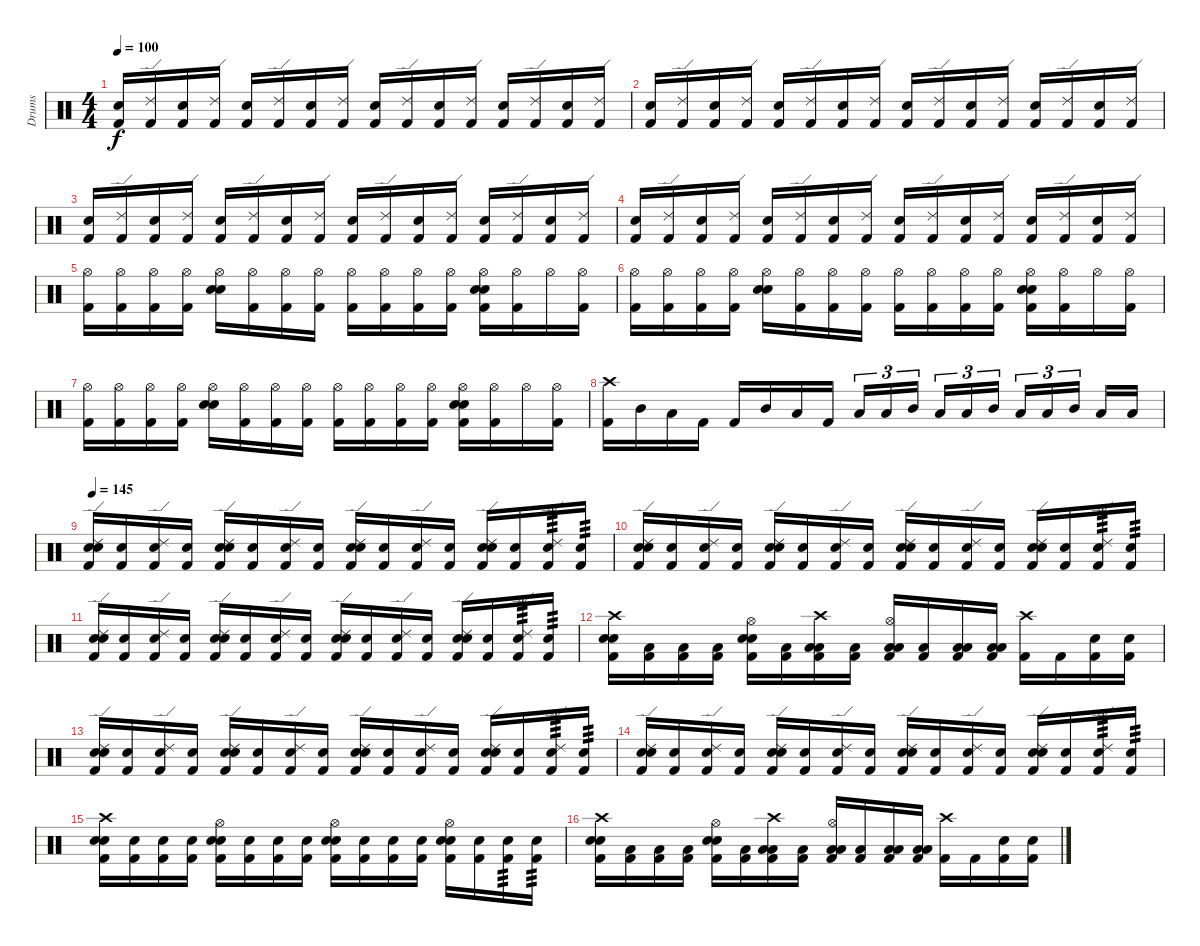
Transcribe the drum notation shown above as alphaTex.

\track ("Drums" "Drums") {instrument percussion}
\staff {score}
\articulation defaults
\ts (4 4)
\tempo 100
\clef neutral
\ks c
("Electric Snare (hit)" "Kick (hit) 2").16{dy f} ("Ride (edge) 2" "Kick (hit) 2").16 ("Electric Snare (hit)" "Kick (hit) 2").16 ("Ride (edge) 2" "Kick (hit) 2").16 ("Electric Snare (hit)" "Kick (hit) 2").16 ("Ride (edge) 2" "Kick (hit) 2").16 ("Electric Snare (hit)" "Kick (hit) 2").16 ("Ride (edge) 2" "Kick (hit) 2").16 ("Electric Snare (hit)" "Kick (hit) 2").16 ("Ride (edge) 2" "Kick (hit) 2").16 ("Electric Snare (hit)" "Kick (hit) 2").16 ("Ride (edge) 2" "Kick (hit) 2").16 ("Electric Snare (hit)" "Kick (hit) 2").16 ("Ride (edge) 2" "Kick (hit) 2").16 ("Electric Snare (hit)" "Kick (hit) 2").16 ("Ride (edge) 2" "Kick (hit) 2").16 |
("Electric Snare (hit)" "Kick (hit) 2").16 ("Ride (edge) 2" "Kick (hit) 2").16 ("Electric Snare (hit)" "Kick (hit) 2").16 ("Ride (edge) 2" "Kick (hit) 2").16 ("Electric Snare (hit)" "Kick (hit) 2").16 ("Ride (edge) 2" "Kick (hit) 2").16 ("Electric Snare (hit)" "Kick (hit) 2").16 ("Ride (edge) 2" "Kick (hit) 2").16 ("Electric Snare (hit)" "Kick (hit) 2").16 ("Ride (edge) 2" "Kick (hit) 2").16 ("Electric Snare (hit)" "Kick (hit) 2").16 ("Ride (edge) 2" "Kick (hit) 2").16 ("Electric Snare (hit)" "Kick (hit) 2").16 ("Ride (edge) 2" "Kick (hit) 2").16 ("Electric Snare (hit)" "Kick (hit) 2").16 ("Ride (edge) 2" "Kick (hit) 2").16 |
("Electric Snare (hit)" "Kick (hit) 2").16 ("Ride (edge) 2" "Kick (hit) 2").16 ("Electric Snare (hit)" "Kick (hit) 2").16 ("Ride (edge) 2" "Kick (hit) 2").16 ("Electric Snare (hit)" "Kick (hit) 2").16 ("Ride (edge) 2" "Kick (hit) 2").16 ("Electric Snare (hit)" "Kick (hit) 2").16 ("Ride (edge) 2" "Kick (hit) 2").16 ("Electric Snare (hit)" "Kick (hit) 2").16 ("Ride (edge) 2" "Kick (hit) 2").16 ("Electric Snare (hit)" "Kick (hit) 2").16 ("Ride (edge) 2" "Kick (hit) 2").16 ("Electric Snare (hit)" "Kick (hit) 2").16 ("Ride (edge) 2" "Kick (hit) 2").16 ("Electric Snare (hit)" "Kick (hit) 2").16 ("Ride (edge) 2" "Kick (hit) 2").16 |
("Electric Snare (hit)" "Kick (hit) 2").16 ("Ride (edge) 2" "Kick (hit) 2").16 ("Electric Snare (hit)" "Kick (hit) 2").16 ("Ride (edge) 2" "Kick (hit) 2").16 ("Electric Snare (hit)" "Kick (hit) 2").16 ("Ride (edge) 2" "Kick (hit) 2").16 ("Electric Snare (hit)" "Kick (hit) 2").16 ("Ride (edge) 2" "Kick (hit) 2").16 ("Electric Snare (hit)" "Kick (hit) 2").16 ("Ride (edge) 2" "Kick (hit) 2").16 ("Electric Snare (hit)" "Kick (hit) 2").16 ("Ride (edge) 2" "Kick (hit) 2").16 ("Electric Snare (hit)" "Kick (hit) 2").16 ("Ride (edge) 2" "Kick (hit) 2").16 ("Electric Snare (hit)" "Kick (hit) 2").16 ("Ride (edge) 2" "Kick (hit) 2").16 |
("Hi-Hat (open)" "Kick (hit) 2").16 ("Hi-Hat (open)" "Kick (hit) 2").16 ("Hi-Hat (open)" "Kick (hit) 2").16 ("Hi-Hat (open)" "Kick (hit) 2").16 ("Hi-Hat (open)" "Electric Snare (hit)" "Electric Snare (hit)").16 ("Hi-Hat (open)" "Kick (hit) 2").16 ("Hi-Hat (open)" "Kick (hit) 2").16 ("Hi-Hat (open)" "Kick (hit) 2").16 ("Hi-Hat (open)" "Kick (hit) 2").16 ("Hi-Hat (open)" "Kick (hit) 2").16 ("Hi-Hat (open)" "Kick (hit) 2").16 ("Hi-Hat (open)" "Kick (hit) 2").16 ("Hi-Hat (open)" "Electric Snare (hit)" "Electric Snare (hit)" "Kick (hit) 2").16 ("Hi-Hat (open)" "Kick (hit) 2").16 "Hi-Hat (open)".16 ("Hi-Hat (open)" "Kick (hit) 2").16 |
("Hi-Hat (open)" "Kick (hit) 2").16 ("Hi-Hat (open)" "Kick (hit) 2").16 ("Hi-Hat (open)" "Kick (hit) 2").16 ("Hi-Hat (open)" "Kick (hit) 2").16 ("Hi-Hat (open)" "Electric Snare (hit)" "Electric Snare (hit)").16 ("Hi-Hat (open)" "Kick (hit) 2").16 ("Hi-Hat (open)" "Kick (hit) 2").16 ("Hi-Hat (open)" "Kick (hit) 2").16 ("Hi-Hat (open)" "Kick (hit) 2").16 ("Hi-Hat (open)" "Kick (hit) 2").16 ("Hi-Hat (open)" "Kick (hit) 2").16 ("Hi-Hat (open)" "Kick (hit) 2").16 ("Hi-Hat (open)" "Electric Snare (hit)" "Electric Snare (hit)" "Kick (hit) 2").16 ("Hi-Hat (open)" "Kick (hit) 2").16 "Hi-Hat (open)".16 ("Hi-Hat (open)" "Kick (hit) 2").16 |
("Hi-Hat (open)" "Kick (hit) 2").16 ("Hi-Hat (open)" "Kick (hit) 2").16 ("Hi-Hat (open)" "Kick (hit) 2").16 ("Hi-Hat (open)" "Kick (hit) 2").16 ("Hi-Hat (open)" "Electric Snare (hit)" "Electric Snare (hit)").16 ("Hi-Hat (open)" "Kick (hit) 2").16 ("Hi-Hat (open)" "Kick (hit) 2").16 ("Hi-Hat (open)" "Kick (hit) 2").16 ("Hi-Hat (open)" "Kick (hit) 2").16 ("Hi-Hat (open)" "Kick (hit) 2").16 ("Hi-Hat (open)" "Kick (hit) 2").16 ("Hi-Hat (open)" "Kick (hit) 2").16 ("Hi-Hat (open)" "Electric Snare (hit)" "Electric Snare (hit)" "Kick (hit) 2").16 ("Hi-Hat (open)" "Kick (hit) 2").16 "Hi-Hat (open)".16 ("Hi-Hat (open)" "Kick (hit) 2").16 |
("Crash high (hit)" "Kick (hit) 2").16 "Mid Tom (hit)".16 "Low Tom (hit)".16 "Kick (hit) 2".16 "Kick (hit) 2".16 "Mid Tom (hit)".16 "Low Tom (hit)".16 "Kick (hit) 2".16 "Low Tom (hit)".16{tu (3 2)} "Low Tom (hit)".16{tu (3 2)} "Mid Tom (hit)".16{tu (3 2) beam splitsecondary} "Low Tom (hit)".16{tu (3 2)} "Low Tom (hit)".16{tu (3 2)} "Mid Tom (hit)".16{tu (3 2)} "Low Tom (hit)".16{tu (3 2)} "Low Tom (hit)".16{tu (3 2)} "Mid Tom (hit)".16{tu (3 2) beam splitsecondary} "Low Floor Tom (hit)".16 "Low Floor Tom (hit)".16 |
\tempo 145
("Ride (edge) 2" "Electric Snare (hit)" "Electric Snare (hit)" "Kick (hit) 2").16 ("Electric Snare (hit)" "Kick (hit) 2").16 ("Ride (edge) 2" "Electric Snare (hit)" "Kick (hit) 2").16 ("Electric Snare (hit)" "Kick (hit) 2").16 ("Ride (edge) 2" "Electric Snare (hit)" "Electric Snare (hit)" "Kick (hit) 2").16 ("Electric Snare (hit)" "Kick (hit) 2").16 ("Ride (edge) 2" "Electric Snare (hit)" "Kick (hit) 2").16 ("Electric Snare (hit)" "Kick (hit) 2").16 ("Ride (edge) 2" "Electric Snare (hit)" "Electric Snare (hit)" "Kick (hit) 2").16 ("Electric Snare (hit)" "Kick (hit) 2").16 ("Ride (edge) 2" "Electric Snare (hit)" "Kick (hit) 2").16 ("Electric Snare (hit)" "Kick (hit) 2").16 ("Ride (edge) 2" "Electric Snare (hit)" "Electric Snare (hit)" "Kick (hit) 2").16 ("Electric Snare (hit)" "Kick (hit) 2").16 ("Ride (edge) 2" "Electric Snare (hit)" "Kick (hit) 2").16{tp 3} ("Electric Snare (hit)" "Kick (hit) 2").16{tp 3} |
("Ride (edge) 2" "Electric Snare (hit)" "Electric Snare (hit)" "Kick (hit) 2").16 ("Electric Snare (hit)" "Kick (hit) 2").16 ("Ride (edge) 2" "Electric Snare (hit)" "Kick (hit) 2").16 ("Electric Snare (hit)" "Kick (hit) 2").16 ("Ride (edge) 2" "Electric Snare (hit)" "Electric Snare (hit)" "Kick (hit) 2").16 ("Electric Snare (hit)" "Kick (hit) 2").16 ("Ride (edge) 2" "Electric Snare (hit)" "Kick (hit) 2").16 ("Electric Snare (hit)" "Kick (hit) 2").16 ("Ride (edge) 2" "Electric Snare (hit)" "Electric Snare (hit)" "Kick (hit) 2").16 ("Electric Snare (hit)" "Kick (hit) 2").16 ("Ride (edge) 2" "Electric Snare (hit)" "Kick (hit) 2").16 ("Electric Snare (hit)" "Kick (hit) 2").16 ("Ride (edge) 2" "Electric Snare (hit)" "Electric Snare (hit)" "Kick (hit) 2").16 ("Electric Snare (hit)" "Kick (hit) 2").16 ("Ride (edge) 2" "Electric Snare (hit)" "Kick (hit) 2").16{tp 3} ("Electric Snare (hit)" "Kick (hit) 2").16{tp 3} |
("Ride (edge) 2" "Electric Snare (hit)" "Electric Snare (hit)" "Kick (hit) 2").16 ("Electric Snare (hit)" "Kick (hit) 2").16 ("Ride (edge) 2" "Electric Snare (hit)" "Kick (hit) 2").16 ("Electric Snare (hit)" "Kick (hit) 2").16 ("Ride (edge) 2" "Electric Snare (hit)" "Electric Snare (hit)" "Kick (hit) 2").16 ("Electric Snare (hit)" "Kick (hit) 2").16 ("Ride (edge) 2" "Electric Snare (hit)" "Kick (hit) 2").16 ("Electric Snare (hit)" "Kick (hit) 2").16 ("Ride (edge) 2" "Electric Snare (hit)" "Electric Snare (hit)" "Kick (hit) 2").16 ("Electric Snare (hit)" "Kick (hit) 2").16 ("Ride (edge) 2" "Electric Snare (hit)" "Kick (hit) 2").16 ("Electric Snare (hit)" "Kick (hit) 2").16 ("Ride (edge) 2" "Electric Snare (hit)" "Electric Snare (hit)" "Kick (hit) 2").16 ("Electric Snare (hit)" "Kick (hit) 2").16 ("Ride (edge) 2" "Electric Snare (hit)" "Kick (hit) 2").16{tp 3} ("Electric Snare (hit)" "Kick (hit) 2").16{tp 3} |
("Crash high (hit)" "Electric Snare (hit)" "Electric Snare (hit)" "Kick (hit) 2").16 ("Low Tom (hit)" "Kick (hit) 2").16 ("Low Tom (hit)" "Kick (hit) 2").16 ("Low Tom (hit)" "Kick (hit) 2").16 ("Hi-Hat (open)" "Electric Snare (hit)" "Electric Snare (hit)" "Kick (hit) 2").16 ("Low Floor Tom (hit)" "Kick (hit) 2").16 ("Crash high (hit)" "Low Tom (hit)" "Low Tom (hit)" "Kick (hit) 2").16 ("Low Floor Tom (hit)" "Kick (hit) 2").16 ("Hi-Hat (open)" "Low Floor Tom (hit)" "Low Tom (hit)" "Kick (hit) 2").16 ("Low Floor Tom (hit)" "Kick (hit) 2").16 ("Low Tom (hit)" "Low Floor Tom (hit)" "Kick (hit) 2").16 ("Low Tom (hit)" "Low Floor Tom (hit)" "Kick (hit) 2").16 ("Crash high (hit)" "Kick (hit) 2").16 "Kick (hit) 2".16 ("Electric Snare (hit)" "Kick (hit) 2").16 ("Electric Snare (hit)" "Kick (hit) 2").16 |
("Ride (edge) 2" "Electric Snare (hit)" "Electric Snare (hit)" "Kick (hit) 2").16 ("Electric Snare (hit)" "Kick (hit) 2").16 ("Ride (edge) 2" "Electric Snare (hit)" "Kick (hit) 2").16 ("Electric Snare (hit)" "Kick (hit) 2").16 ("Ride (edge) 2" "Electric Snare (hit)" "Electric Snare (hit)" "Kick (hit) 2").16 ("Electric Snare (hit)" "Kick (hit) 2").16 ("Ride (edge) 2" "Electric Snare (hit)" "Kick (hit) 2").16 ("Electric Snare (hit)" "Kick (hit) 2").16 ("Ride (edge) 2" "Electric Snare (hit)" "Electric Snare (hit)" "Kick (hit) 2").16 ("Electric Snare (hit)" "Kick (hit) 2").16 ("Ride (edge) 2" "Electric Snare (hit)" "Kick (hit) 2").16 ("Electric Snare (hit)" "Kick (hit) 2").16 ("Ride (edge) 2" "Electric Snare (hit)" "Electric Snare (hit)" "Kick (hit) 2").16 ("Electric Snare (hit)" "Kick (hit) 2").16 ("Ride (edge) 2" "Electric Snare (hit)" "Kick (hit) 2").16{tp 3} ("Electric Snare (hit)" "Kick (hit) 2").16{tp 3} |
("Ride (edge) 2" "Electric Snare (hit)" "Electric Snare (hit)" "Kick (hit) 2").16 ("Electric Snare (hit)" "Kick (hit) 2").16 ("Ride (edge) 2" "Electric Snare (hit)" "Kick (hit) 2").16 ("Electric Snare (hit)" "Kick (hit) 2").16 ("Ride (edge) 2" "Electric Snare (hit)" "Electric Snare (hit)" "Kick (hit) 2").16 ("Electric Snare (hit)" "Kick (hit) 2").16 ("Ride (edge) 2" "Electric Snare (hit)" "Kick (hit) 2").16 ("Electric Snare (hit)" "Kick (hit) 2").16 ("Ride (edge) 2" "Electric Snare (hit)" "Electric Snare (hit)" "Kick (hit) 2").16 ("Electric Snare (hit)" "Kick (hit) 2").16 ("Ride (edge) 2" "Electric Snare (hit)" "Kick (hit) 2").16 ("Electric Snare (hit)" "Kick (hit) 2").16 ("Ride (edge) 2" "Electric Snare (hit)" "Electric Snare (hit)" "Kick (hit) 2").16 ("Electric Snare (hit)" "Kick (hit) 2").16 ("Ride (edge) 2" "Electric Snare (hit)" "Kick (hit) 2").16{tp 3} ("Electric Snare (hit)" "Kick (hit) 2").16{tp 3} |
("Crash high (hit)" "Electric Snare (hit)" "Electric Snare (hit)" "Kick (hit) 2").16 ("Electric Snare (hit)" "Kick (hit) 2").16 ("Electric Snare (hit)" "Kick (hit) 2").16 ("Electric Snare (hit)" "Kick (hit) 2").16 ("Hi-Hat (open)" "Electric Snare (hit)" "Electric Snare (hit)" "Kick (hit) 2").16 ("Electric Snare (hit)" "Kick (hit) 2").16 ("Electric Snare (hit)" "Kick (hit) 2").16 ("Electric Snare (hit)" "Kick (hit) 2").16 ("Hi-Hat (open)" "Electric Snare (hit)" "Electric Snare (hit)" "Kick (hit) 2").16 ("Electric Snare (hit)" "Kick (hit) 2").16 ("Electric Snare (hit)" "Kick (hit) 2").16 ("Electric Snare (hit)" "Kick (hit) 2").16 ("Hi-Hat (open)" "Electric Snare (hit)" "Electric Snare (hit)" "Kick (hit) 2").16 ("Electric Snare (hit)" "Kick (hit) 2").16 ("Electric Snare (hit)" "Kick (hit) 2").16{tp 3} ("Electric Snare (hit)" "Kick (hit) 2").16{tp 3} |
("Crash high (hit)" "Electric Snare (hit)" "Electric Snare (hit)" "Kick (hit) 2").16 ("Low Tom (hit)" "Kick (hit) 2").16 ("Low Tom (hit)" "Kick (hit) 2").16 ("Low Tom (hit)" "Kick (hit) 2").16 ("Hi-Hat (open)" "Electric Snare (hit)" "Electric Snare (hit)" "Kick (hit) 2").16 ("Low Floor Tom (hit)" "Kick (hit) 2").16 ("Crash high (hit)" "Low Tom (hit)" "Low Tom (hit)" "Kick (hit) 2").16 ("Low Floor Tom (hit)" "Kick (hit) 2").16 ("Hi-Hat (open)" "Low Floor Tom (hit)" "Low Tom (hit)" "Kick (hit) 2").16 ("Low Floor Tom (hit)" "Kick (hit) 2").16 ("Low Tom (hit)" "Low Floor Tom (hit)" "Kick (hit) 2").16 ("Low Tom (hit)" "Low Floor Tom (hit)" "Kick (hit) 2").16 ("Crash high (hit)" "Kick (hit) 2").16 "Kick (hit) 2".16 ("Electric Snare (hit)" "Kick (hit) 2").16 ("Electric Snare (hit)" "Kick (hit) 2").16
